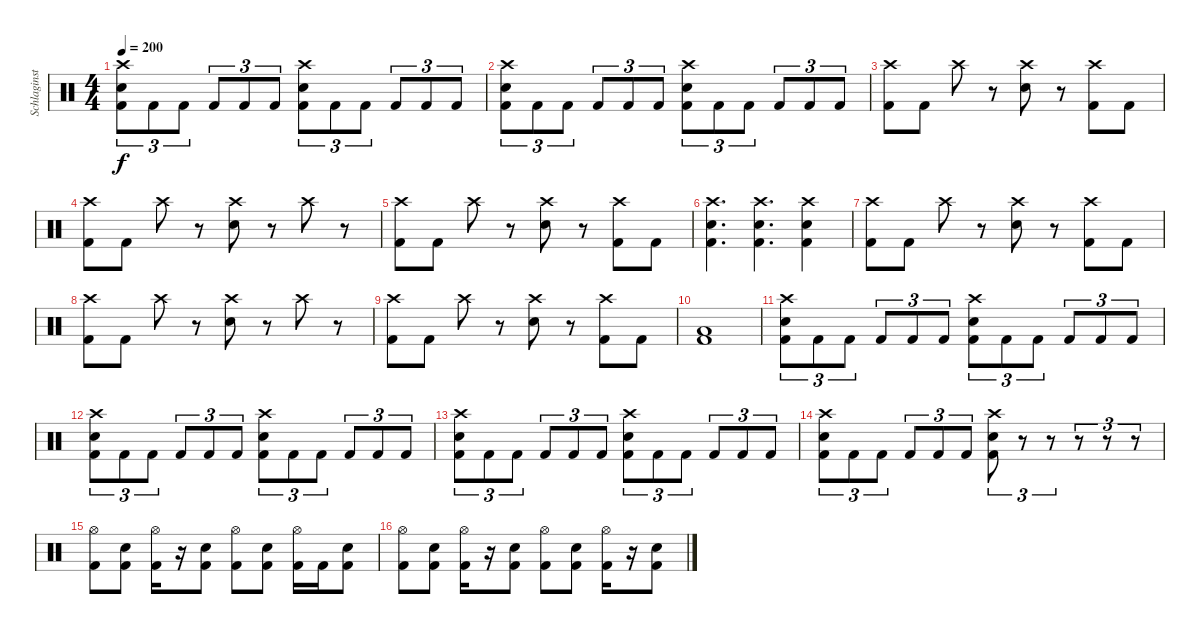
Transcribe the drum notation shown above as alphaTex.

\track ("Schlaginstrumente - Auswahl" "Schlaginst") {instrument percussion}
\staff {score}
\articulation defaults
\ts (4 4)
\tempo 200
\clef neutral
\ks c
("Crash high (hit)" "Electric Snare (hit)" "Kick (hit) 2").8{tu (3 2) dy f} "Kick (hit) 2".8{tu (3 2)} "Kick (hit) 2".8{tu (3 2)} "Kick (hit) 2".8{tu (3 2)} "Kick (hit) 2".8{tu (3 2)} "Kick (hit) 2".8{tu (3 2)} ("Crash high (hit)" "Electric Snare (hit)" "Kick (hit) 2").8{tu (3 2)} "Kick (hit) 2".8{tu (3 2)} "Kick (hit) 2".8{tu (3 2)} "Kick (hit) 2".8{tu (3 2)} "Kick (hit) 2".8{tu (3 2)} "Kick (hit) 2".8{tu (3 2)} |
("Crash high (hit)" "Electric Snare (hit)" "Kick (hit) 2").8{tu (3 2)} "Kick (hit) 2".8{tu (3 2)} "Kick (hit) 2".8{tu (3 2)} "Kick (hit) 2".8{tu (3 2)} "Kick (hit) 2".8{tu (3 2)} "Kick (hit) 2".8{tu (3 2)} ("Crash high (hit)" "Electric Snare (hit)" "Kick (hit) 2").8{tu (3 2)} "Kick (hit) 2".8{tu (3 2)} "Kick (hit) 2".8{tu (3 2)} "Kick (hit) 2".8{tu (3 2)} "Kick (hit) 2".8{tu (3 2)} "Kick (hit) 2".8{tu (3 2)} |
("Crash high (hit)" "Kick (hit) 2").8 "Kick (hit) 2".8 "Crash high (hit)".8 r.8 ("Crash high (hit)" "Electric Snare (hit)").8 r.8 ("Crash high (hit)" "Kick (hit) 2").8 "Kick (hit) 2".8 |
("Crash high (hit)" "Kick (hit) 2").8 "Kick (hit) 2".8 "Crash high (hit)".8 r.8 ("Crash high (hit)" "Electric Snare (hit)").8 r.8 "Crash high (hit)".8 r.8 |
("Crash high (hit)" "Kick (hit) 2").8 "Kick (hit) 2".8 "Crash high (hit)".8 r.8 ("Crash high (hit)" "Electric Snare (hit)").8 r.8 ("Crash high (hit)" "Kick (hit) 2").8 "Kick (hit) 2".8 |
("Crash high (hit)" "Electric Snare (hit)" "Kick (hit) 2").4{d} ("Crash high (hit)" "Electric Snare (hit)" "Kick (hit) 2").4{d} ("Crash high (hit)" "Electric Snare (hit)" "Kick (hit) 2").4 |
("Crash high (hit)" "Kick (hit) 2").8 "Kick (hit) 2".8 "Crash high (hit)".8 r.8 ("Crash high (hit)" "Electric Snare (hit)").8 r.8 ("Crash high (hit)" "Kick (hit) 2").8 "Kick (hit) 2".8 |
("Crash high (hit)" "Kick (hit) 2").8 "Kick (hit) 2".8 "Crash high (hit)".8 r.8 ("Crash high (hit)" "Electric Snare (hit)").8 r.8 "Crash high (hit)".8 r.8 |
("Crash high (hit)" "Kick (hit) 2").8 "Kick (hit) 2".8 "Crash high (hit)".8 r.8 ("Crash high (hit)" "Electric Snare (hit)").8 r.8 ("Crash high (hit)" "Kick (hit) 2").8 "Kick (hit) 2".8 |
("Low Floor Tom (hit)" "Kick (hit) 2").1 |
("Crash high (hit)" "Electric Snare (hit)" "Kick (hit) 2").8{tu (3 2)} "Kick (hit) 2".8{tu (3 2)} "Kick (hit) 2".8{tu (3 2)} "Kick (hit) 2".8{tu (3 2)} "Kick (hit) 2".8{tu (3 2)} "Kick (hit) 2".8{tu (3 2)} ("Crash high (hit)" "Electric Snare (hit)" "Kick (hit) 2").8{tu (3 2)} "Kick (hit) 2".8{tu (3 2)} "Kick (hit) 2".8{tu (3 2)} "Kick (hit) 2".8{tu (3 2)} "Kick (hit) 2".8{tu (3 2)} "Kick (hit) 2".8{tu (3 2)} |
("Crash high (hit)" "Electric Snare (hit)" "Kick (hit) 2").8{tu (3 2)} "Kick (hit) 2".8{tu (3 2)} "Kick (hit) 2".8{tu (3 2)} "Kick (hit) 2".8{tu (3 2)} "Kick (hit) 2".8{tu (3 2)} "Kick (hit) 2".8{tu (3 2)} ("Crash high (hit)" "Electric Snare (hit)" "Kick (hit) 2").8{tu (3 2)} "Kick (hit) 2".8{tu (3 2)} "Kick (hit) 2".8{tu (3 2)} "Kick (hit) 2".8{tu (3 2)} "Kick (hit) 2".8{tu (3 2)} "Kick (hit) 2".8{tu (3 2)} |
("Crash high (hit)" "Electric Snare (hit)" "Kick (hit) 2").8{tu (3 2)} "Kick (hit) 2".8{tu (3 2)} "Kick (hit) 2".8{tu (3 2)} "Kick (hit) 2".8{tu (3 2)} "Kick (hit) 2".8{tu (3 2)} "Kick (hit) 2".8{tu (3 2)} ("Crash high (hit)" "Electric Snare (hit)" "Kick (hit) 2").8{tu (3 2)} "Kick (hit) 2".8{tu (3 2)} "Kick (hit) 2".8{tu (3 2)} "Kick (hit) 2".8{tu (3 2)} "Kick (hit) 2".8{tu (3 2)} "Kick (hit) 2".8{tu (3 2)} |
("Crash high (hit)" "Electric Snare (hit)" "Kick (hit) 2").8{tu (3 2)} "Kick (hit) 2".8{tu (3 2)} "Kick (hit) 2".8{tu (3 2)} "Kick (hit) 2".8{tu (3 2)} "Kick (hit) 2".8{tu (3 2)} "Kick (hit) 2".8{tu (3 2)} ("Crash high (hit)" "Electric Snare (hit)" "Kick (hit) 2").8{tu (3 2)} r.8{tu (3 2)} r.8{tu (3 2)} r.8{tu (3 2)} r.8{tu (3 2)} r.8{tu (3 2)} |
("Kick (hit) 2" "Hi-Hat (open)").8 ("Kick (hit) 2" "Electric Snare (hit)").8 ("Kick (hit) 2" "Hi-Hat (open)").16 r.16 ("Kick (hit) 2" "Electric Snare (hit)").8 ("Kick (hit) 2" "Hi-Hat (open)").8 ("Kick (hit) 2" "Electric Snare (hit)").8 ("Kick (hit) 2" "Hi-Hat (open)").16 "Kick (hit) 2".16 ("Kick (hit) 2" "Electric Snare (hit)").8 |
("Kick (hit) 2" "Hi-Hat (open)").8 ("Kick (hit) 2" "Electric Snare (hit)").8 ("Kick (hit) 2" "Hi-Hat (open)").16 r.16 ("Kick (hit) 2" "Electric Snare (hit)").8 ("Kick (hit) 2" "Hi-Hat (open)").8 ("Kick (hit) 2" "Electric Snare (hit)").8 ("Kick (hit) 2" "Hi-Hat (open)").16 r.16 ("Kick (hit) 2" "Electric Snare (hit)").8
